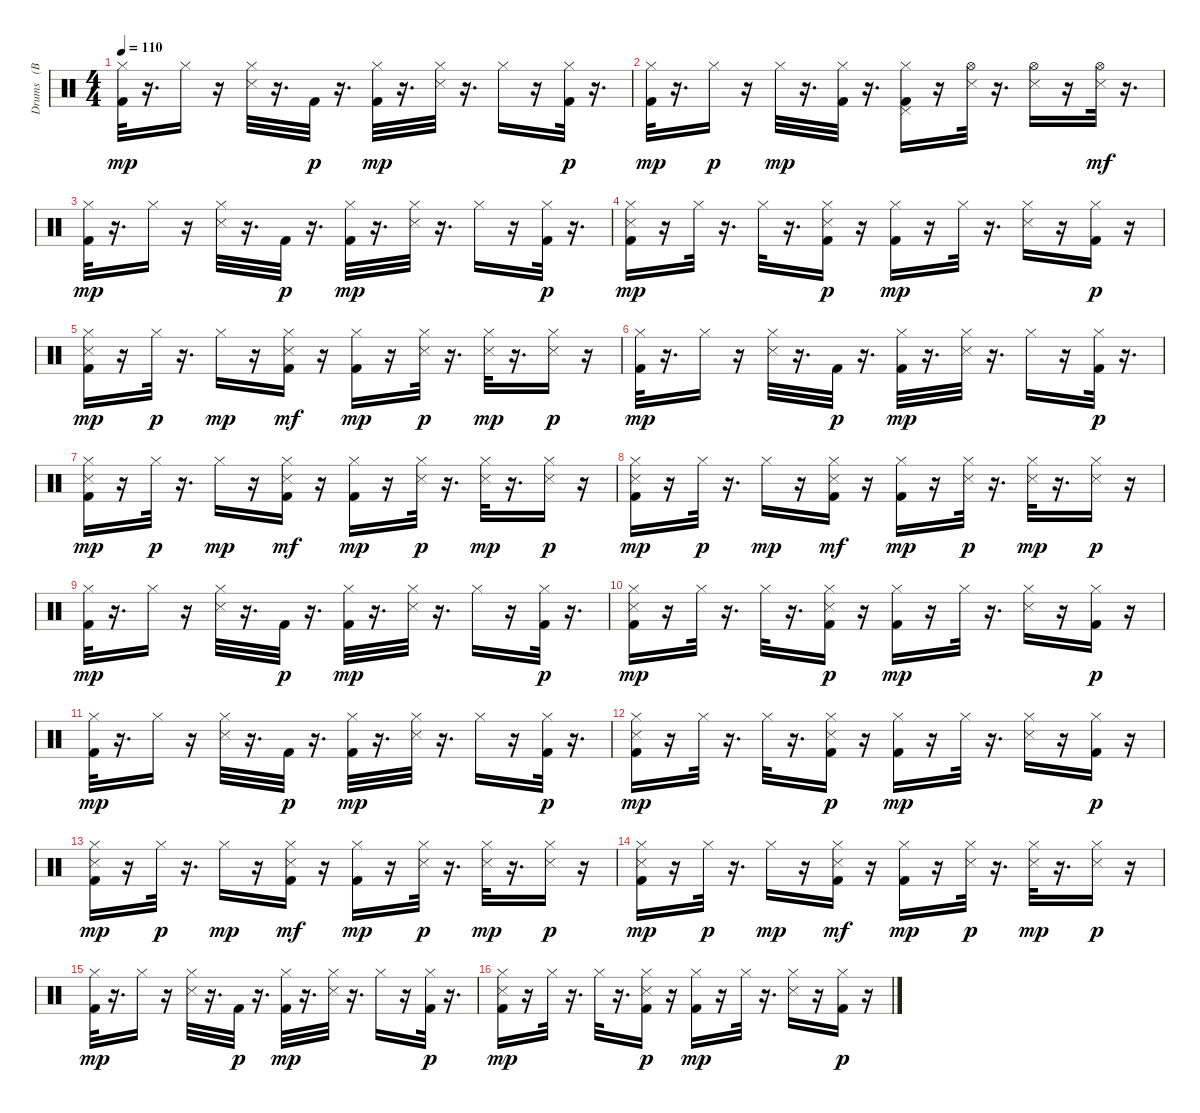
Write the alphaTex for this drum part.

\track ("Drums   (BB)" "Drums   (B") {instrument percussion}
\staff {score}
\articulation defaults
\ts (4 4)
\tempo 110
\clef neutral
\ks c
("Kick (hit) 2" "Hi-Hat (closed)").32{dy mp} r.16{d} "Hi-Hat (closed)".16 r.16 ("Hi-Hat (closed)" "Snare (side stick) 3").32 r.16{d} "Kick (hit) 2".32{dy p} r.16{d} ("Kick (hit) 2" "Hi-Hat (closed)").32{dy mp} r.16{d} ("Snare (side stick) 3" "Hi-Hat (closed)").32 r.16{d} "Hi-Hat (closed)".16 r.16 ("Hi-Hat (closed)" "Kick (hit) 2").32{dy p} r.16{d} |
("Hi-Hat (closed)" "Kick (hit) 2").32{dy mp} r.16{d} "Hi-Hat (closed)".16{dy p} r.16 "Hi-Hat (closed)".32{dy mp} r.16{d} ("Kick (hit) 2" "Hi-Hat (closed)").32 r.16{d} ("Pedal Hi-Hat (hit)" "Kick (hit) 2" "Hi-Hat (closed)").16 r.16 ("Hi-Hat (open)" "Snare (side stick) 3").32 r.16{d} ("Hi-Hat (open)" "Snare (side stick) 3").16 r.16 ("Hi-Hat (open)" "Snare (side stick) 3").32{dy mf} r.16{d} |
("Kick (hit) 2" "Hi-Hat (closed)").32{dy mp} r.16{d} "Hi-Hat (closed)".16 r.16 ("Hi-Hat (closed)" "Snare (side stick) 3").32 r.16{d} "Kick (hit) 2".32{dy p} r.16{d} ("Kick (hit) 2" "Hi-Hat (closed)").32{dy mp} r.16{d} ("Snare (side stick) 3" "Hi-Hat (closed)").32 r.16{d} "Hi-Hat (closed)".16 r.16 ("Hi-Hat (closed)" "Kick (hit) 2").32{dy p} r.16{d} |
("Kick (hit) 2" "Snare (side stick) 3" "Hi-Hat (closed)").16{dy mp} r.16 "Hi-Hat (closed)".32 r.16{d} "Hi-Hat (closed)".32 r.16{d} ("Snare (side stick) 3" "Hi-Hat (closed)" "Kick (hit) 2").16{dy p} r.16 ("Hi-Hat (closed)" "Kick (hit) 2").16{dy mp} r.16 "Hi-Hat (closed)".32 r.16{d} ("Snare (side stick) 3" "Hi-Hat (closed)").16 r.16 ("Hi-Hat (closed)" "Kick (hit) 2").16{dy p} r.16 |
("Kick (hit) 2" "Snare (side stick) 3" "Hi-Hat (closed)").16{dy mp} r.16 "Hi-Hat (closed)".32{dy p} r.16{d} "Hi-Hat (closed)".16{dy mp} r.16 ("Kick (hit) 2" "Hi-Hat (closed)" "Snare (side stick) 3").16{dy mf} r.16 ("Kick (hit) 2" "Hi-Hat (closed)").16{dy mp} r.16 ("Hi-Hat (closed)" "Snare (side stick) 3").32{dy p} r.16{d} ("Snare (side stick) 3" "Hi-Hat (closed)").32{dy mp} r.16{d} ("Hi-Hat (closed)" "Snare (side stick) 3").16{dy p} r.16 |
("Kick (hit) 2" "Hi-Hat (closed)").32{dy mp} r.16{d} "Hi-Hat (closed)".16 r.16 ("Hi-Hat (closed)" "Snare (side stick) 3").32 r.16{d} "Kick (hit) 2".32{dy p} r.16{d} ("Kick (hit) 2" "Hi-Hat (closed)").32{dy mp} r.16{d} ("Snare (side stick) 3" "Hi-Hat (closed)").32 r.16{d} "Hi-Hat (closed)".16 r.16 ("Hi-Hat (closed)" "Kick (hit) 2").32{dy p} r.16{d} |
("Kick (hit) 2" "Snare (side stick) 3" "Hi-Hat (closed)").16{dy mp} r.16 "Hi-Hat (closed)".32{dy p} r.16{d} "Hi-Hat (closed)".16{dy mp} r.16 ("Kick (hit) 2" "Hi-Hat (closed)" "Snare (side stick) 3").16{dy mf} r.16 ("Kick (hit) 2" "Hi-Hat (closed)").16{dy mp} r.16 ("Hi-Hat (closed)" "Snare (side stick) 3").32{dy p} r.16{d} ("Snare (side stick) 3" "Hi-Hat (closed)").32{dy mp} r.16{d} ("Hi-Hat (closed)" "Snare (side stick) 3").16{dy p} r.16 |
("Kick (hit) 2" "Snare (side stick) 3" "Hi-Hat (closed)").16{dy mp} r.16 "Hi-Hat (closed)".32{dy p} r.16{d} "Hi-Hat (closed)".16{dy mp} r.16 ("Kick (hit) 2" "Hi-Hat (closed)" "Snare (side stick) 3").16{dy mf} r.16 ("Kick (hit) 2" "Hi-Hat (closed)").16{dy mp} r.16 ("Hi-Hat (closed)" "Snare (side stick) 3").32{dy p} r.16{d} ("Snare (side stick) 3" "Hi-Hat (closed)").32{dy mp} r.16{d} ("Hi-Hat (closed)" "Snare (side stick) 3").16{dy p} r.16 |
("Kick (hit) 2" "Hi-Hat (closed)").32{dy mp} r.16{d} "Hi-Hat (closed)".16 r.16 ("Hi-Hat (closed)" "Snare (side stick) 3").32 r.16{d} "Kick (hit) 2".32{dy p} r.16{d} ("Kick (hit) 2" "Hi-Hat (closed)").32{dy mp} r.16{d} ("Snare (side stick) 3" "Hi-Hat (closed)").32 r.16{d} "Hi-Hat (closed)".16 r.16 ("Hi-Hat (closed)" "Kick (hit) 2").32{dy p} r.16{d} |
("Kick (hit) 2" "Snare (side stick) 3" "Hi-Hat (closed)").16{dy mp} r.16 "Hi-Hat (closed)".32 r.16{d} "Hi-Hat (closed)".32 r.16{d} ("Snare (side stick) 3" "Hi-Hat (closed)" "Kick (hit) 2").16{dy p} r.16 ("Hi-Hat (closed)" "Kick (hit) 2").16{dy mp} r.16 "Hi-Hat (closed)".32 r.16{d} ("Snare (side stick) 3" "Hi-Hat (closed)").16 r.16 ("Hi-Hat (closed)" "Kick (hit) 2").16{dy p} r.16 |
("Kick (hit) 2" "Hi-Hat (closed)").32{dy mp} r.16{d} "Hi-Hat (closed)".16 r.16 ("Hi-Hat (closed)" "Snare (side stick) 3").32 r.16{d} "Kick (hit) 2".32{dy p} r.16{d} ("Kick (hit) 2" "Hi-Hat (closed)").32{dy mp} r.16{d} ("Snare (side stick) 3" "Hi-Hat (closed)").32 r.16{d} "Hi-Hat (closed)".16 r.16 ("Hi-Hat (closed)" "Kick (hit) 2").32{dy p} r.16{d} |
("Kick (hit) 2" "Snare (side stick) 3" "Hi-Hat (closed)").16{dy mp} r.16 "Hi-Hat (closed)".32 r.16{d} "Hi-Hat (closed)".32 r.16{d} ("Snare (side stick) 3" "Hi-Hat (closed)" "Kick (hit) 2").16{dy p} r.16 ("Hi-Hat (closed)" "Kick (hit) 2").16{dy mp} r.16 "Hi-Hat (closed)".32 r.16{d} ("Snare (side stick) 3" "Hi-Hat (closed)").16 r.16 ("Hi-Hat (closed)" "Kick (hit) 2").16{dy p} r.16 |
("Kick (hit) 2" "Snare (side stick) 3" "Hi-Hat (closed)").16{dy mp} r.16 "Hi-Hat (closed)".32{dy p} r.16{d} "Hi-Hat (closed)".16{dy mp} r.16 ("Kick (hit) 2" "Hi-Hat (closed)" "Snare (side stick) 3").16{dy mf} r.16 ("Kick (hit) 2" "Hi-Hat (closed)").16{dy mp} r.16 ("Hi-Hat (closed)" "Snare (side stick) 3").32{dy p} r.16{d} ("Snare (side stick) 3" "Hi-Hat (closed)").32{dy mp} r.16{d} ("Hi-Hat (closed)" "Snare (side stick) 3").16{dy p} r.16 |
("Kick (hit) 2" "Snare (side stick) 3" "Hi-Hat (closed)").16{dy mp} r.16 "Hi-Hat (closed)".32{dy p} r.16{d} "Hi-Hat (closed)".16{dy mp} r.16 ("Kick (hit) 2" "Hi-Hat (closed)" "Snare (side stick) 3").16{dy mf} r.16 ("Kick (hit) 2" "Hi-Hat (closed)").16{dy mp} r.16 ("Hi-Hat (closed)" "Snare (side stick) 3").32{dy p} r.16{d} ("Snare (side stick) 3" "Hi-Hat (closed)").32{dy mp} r.16{d} ("Hi-Hat (closed)" "Snare (side stick) 3").16{dy p} r.16 |
("Kick (hit) 2" "Hi-Hat (closed)").32{dy mp} r.16{d} "Hi-Hat (closed)".16 r.16 ("Hi-Hat (closed)" "Snare (side stick) 3").32 r.16{d} "Kick (hit) 2".32{dy p} r.16{d} ("Kick (hit) 2" "Hi-Hat (closed)").32{dy mp} r.16{d} ("Snare (side stick) 3" "Hi-Hat (closed)").32 r.16{d} "Hi-Hat (closed)".16 r.16 ("Hi-Hat (closed)" "Kick (hit) 2").32{dy p} r.16{d} |
("Kick (hit) 2" "Snare (side stick) 3" "Hi-Hat (closed)").16{dy mp} r.16 "Hi-Hat (closed)".32 r.16{d} "Hi-Hat (closed)".32 r.16{d} ("Snare (side stick) 3" "Hi-Hat (closed)" "Kick (hit) 2").16{dy p} r.16 ("Hi-Hat (closed)" "Kick (hit) 2").16{dy mp} r.16 "Hi-Hat (closed)".32 r.16{d} ("Snare (side stick) 3" "Hi-Hat (closed)").16 r.16 ("Hi-Hat (closed)" "Kick (hit) 2").16{dy p} r.16
